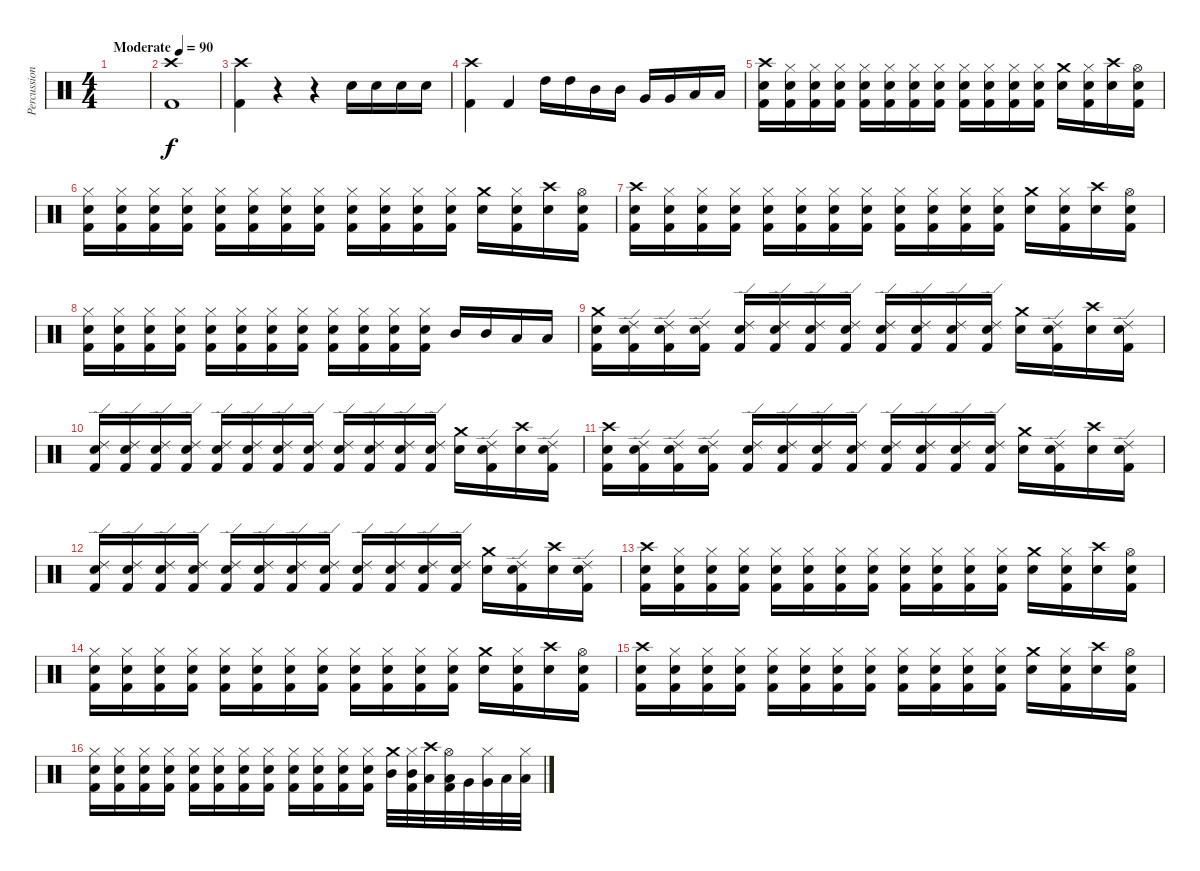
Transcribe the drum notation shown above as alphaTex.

\track ("Percussion" "Percussion") {instrument percussion}
\staff {score}
\articulation defaults
\ts (4 4)
\tempo (90 "Moderate")
\clef neutral
\ks c
|
("Crash high (hit)" "Kick (hit) 2").1 |
("Crash high (hit)" "Kick (hit) 2").4 r.4 r.4 "Snare (hit) 2".16 "Snare (hit) 2".16 "Snare (hit) 2".16 "Snare (hit) 2".16 |
("Crash high (hit)" "Kick (hit) 2").4 "Kick (hit) 2".4 "High Tom (hit)".16 "High Tom (hit)".16 "Mid Tom (hit)".16 "Mid Tom (hit)".16 "Very Low Tom (hit)".16 "Very Low Tom (hit)".16 "Low Floor Tom (hit)".16 "Low Floor Tom (hit)".16 |
("Crash high (hit)" "Snare (hit) 2" "Kick (hit) 2").16 ("Hi-Hat (closed)" "Snare (hit) 2" "Kick (hit) 2").16 ("Hi-Hat (closed)" "Snare (hit) 2" "Kick (hit) 2").16 ("Hi-Hat (closed)" "Snare (hit) 2" "Kick (hit) 2").16 ("Hi-Hat (closed)" "Snare (hit) 2" "Kick (hit) 2").16 ("Hi-Hat (closed)" "Snare (hit) 2" "Kick (hit) 2").16 ("Hi-Hat (closed)" "Snare (hit) 2" "Kick (hit) 2").16 ("Hi-Hat (closed)" "Snare (hit) 2" "Kick (hit) 2").16 ("Hi-Hat (closed)" "Snare (hit) 2" "Kick (hit) 2").16 ("Hi-Hat (closed)" "Snare (hit) 2" "Kick (hit) 2").16 ("Hi-Hat (closed)" "Snare (hit) 2" "Kick (hit) 2").16 ("Hi-Hat (closed)" "Snare (hit) 2" "Kick (hit) 2").16 ("Crash medium (hit)" "Snare (hit) 2").16 ("Hi-Hat (closed)" "Snare (hit) 2" "Kick (hit) 2").16 ("Crash high (hit)" "Snare (hit) 2").16 ("Hi-Hat (open)" "Snare (hit) 2" "Kick (hit) 2").16 |
("Hi-Hat (closed)" "Snare (hit) 2" "Kick (hit) 2").16 ("Hi-Hat (closed)" "Snare (hit) 2" "Kick (hit) 2").16 ("Hi-Hat (closed)" "Snare (hit) 2" "Kick (hit) 2").16 ("Hi-Hat (closed)" "Snare (hit) 2" "Kick (hit) 2").16 ("Hi-Hat (closed)" "Snare (hit) 2" "Kick (hit) 2").16 ("Hi-Hat (closed)" "Snare (hit) 2" "Kick (hit) 2").16 ("Hi-Hat (closed)" "Snare (hit) 2" "Kick (hit) 2").16 ("Hi-Hat (closed)" "Snare (hit) 2" "Kick (hit) 2").16 ("Hi-Hat (closed)" "Snare (hit) 2" "Kick (hit) 2").16 ("Hi-Hat (closed)" "Snare (hit) 2" "Kick (hit) 2").16 ("Hi-Hat (closed)" "Snare (hit) 2" "Kick (hit) 2").16 ("Hi-Hat (closed)" "Snare (hit) 2" "Kick (hit) 2").16 ("Crash medium (hit)" "Snare (hit) 2").16 ("Hi-Hat (closed)" "Snare (hit) 2" "Kick (hit) 2").16 ("Crash high (hit)" "Snare (hit) 2").16 ("Hi-Hat (open)" "Snare (hit) 2" "Kick (hit) 2").16 |
("Crash high (hit)" "Snare (hit) 2" "Kick (hit) 2").16 ("Hi-Hat (closed)" "Snare (hit) 2" "Kick (hit) 2").16 ("Hi-Hat (closed)" "Snare (hit) 2" "Kick (hit) 2").16 ("Hi-Hat (closed)" "Snare (hit) 2" "Kick (hit) 2").16 ("Hi-Hat (closed)" "Snare (hit) 2" "Kick (hit) 2").16 ("Hi-Hat (closed)" "Snare (hit) 2" "Kick (hit) 2").16 ("Hi-Hat (closed)" "Snare (hit) 2" "Kick (hit) 2").16 ("Hi-Hat (closed)" "Snare (hit) 2" "Kick (hit) 2").16 ("Hi-Hat (closed)" "Snare (hit) 2" "Kick (hit) 2").16 ("Hi-Hat (closed)" "Snare (hit) 2" "Kick (hit) 2").16 ("Hi-Hat (closed)" "Snare (hit) 2" "Kick (hit) 2").16 ("Hi-Hat (closed)" "Snare (hit) 2" "Kick (hit) 2").16 ("Crash medium (hit)" "Snare (hit) 2").16 ("Hi-Hat (closed)" "Snare (hit) 2" "Kick (hit) 2").16 ("Crash high (hit)" "Snare (hit) 2").16 ("Hi-Hat (open)" "Snare (hit) 2" "Kick (hit) 2").16 |
("Hi-Hat (closed)" "Snare (hit) 2" "Kick (hit) 2").16 ("Hi-Hat (closed)" "Snare (hit) 2" "Kick (hit) 2").16 ("Hi-Hat (closed)" "Snare (hit) 2" "Kick (hit) 2").16 ("Hi-Hat (closed)" "Snare (hit) 2" "Kick (hit) 2").16 ("Hi-Hat (closed)" "Snare (hit) 2" "Kick (hit) 2").16 ("Hi-Hat (closed)" "Snare (hit) 2" "Kick (hit) 2").16 ("Hi-Hat (closed)" "Snare (hit) 2" "Kick (hit) 2").16 ("Hi-Hat (closed)" "Snare (hit) 2" "Kick (hit) 2").16 ("Hi-Hat (closed)" "Snare (hit) 2" "Kick (hit) 2").16 ("Hi-Hat (closed)" "Snare (hit) 2" "Kick (hit) 2").16 ("Hi-Hat (closed)" "Snare (hit) 2" "Kick (hit) 2").16 ("Hi-Hat (closed)" "Snare (hit) 2" "Kick (hit) 2").16 "Mid Tom (hit)".16 "Mid Tom (hit)".16 "Low Tom (hit)".16 "Low Tom (hit)".16 |
("Crash medium (hit)" "Snare (hit) 2" "Kick (hit) 2").16 ("Ride (edge) 2" "Snare (hit) 2" "Kick (hit) 2").16 ("Ride (edge) 2" "Snare (hit) 2" "Kick (hit) 2").16 ("Ride (edge) 2" "Snare (hit) 2" "Kick (hit) 2").16 ("Ride (edge) 2" "Snare (hit) 2" "Kick (hit) 2").16 ("Ride (edge) 2" "Snare (hit) 2" "Kick (hit) 2").16 ("Ride (edge) 2" "Snare (hit) 2" "Kick (hit) 2").16 ("Ride (edge) 2" "Snare (hit) 2" "Kick (hit) 2").16 ("Ride (edge) 2" "Snare (hit) 2" "Kick (hit) 2").16 ("Ride (edge) 2" "Snare (hit) 2" "Kick (hit) 2").16 ("Ride (edge) 2" "Snare (hit) 2" "Kick (hit) 2").16 ("Ride (edge) 2" "Snare (hit) 2" "Kick (hit) 2").16 ("Crash medium (hit)" "Snare (hit) 2").16 ("Ride (edge) 2" "Snare (hit) 2" "Kick (hit) 2").16 ("Crash high (hit)" "Snare (hit) 2").16 ("Ride (edge) 2" "Snare (hit) 2" "Kick (hit) 2").16 |
("Ride (edge) 2" "Snare (hit) 2" "Kick (hit) 2").16 ("Ride (edge) 2" "Snare (hit) 2" "Kick (hit) 2").16 ("Ride (edge) 2" "Snare (hit) 2" "Kick (hit) 2").16 ("Ride (edge) 2" "Snare (hit) 2" "Kick (hit) 2").16 ("Ride (edge) 2" "Snare (hit) 2" "Kick (hit) 2").16 ("Ride (edge) 2" "Snare (hit) 2" "Kick (hit) 2").16 ("Ride (edge) 2" "Snare (hit) 2" "Kick (hit) 2").16 ("Ride (edge) 2" "Snare (hit) 2" "Kick (hit) 2").16 ("Ride (edge) 2" "Snare (hit) 2" "Kick (hit) 2").16 ("Ride (edge) 2" "Snare (hit) 2" "Kick (hit) 2").16 ("Ride (edge) 2" "Snare (hit) 2" "Kick (hit) 2").16 ("Ride (edge) 2" "Snare (hit) 2" "Kick (hit) 2").16 ("Crash medium (hit)" "Snare (hit) 2").16 ("Ride (edge) 2" "Snare (hit) 2" "Kick (hit) 2").16 ("Crash high (hit)" "Snare (hit) 2").16 ("Ride (edge) 2" "Snare (hit) 2" "Kick (hit) 2").16 |
("Crash high (hit)" "Snare (hit) 2" "Kick (hit) 2").16 ("Ride (edge) 2" "Snare (hit) 2" "Kick (hit) 2").16 ("Ride (edge) 2" "Snare (hit) 2" "Kick (hit) 2").16 ("Ride (edge) 2" "Snare (hit) 2" "Kick (hit) 2").16 ("Ride (edge) 2" "Snare (hit) 2" "Kick (hit) 2").16 ("Ride (edge) 2" "Snare (hit) 2" "Kick (hit) 2").16 ("Ride (edge) 2" "Snare (hit) 2" "Kick (hit) 2").16 ("Ride (edge) 2" "Snare (hit) 2" "Kick (hit) 2").16 ("Ride (edge) 2" "Snare (hit) 2" "Kick (hit) 2").16 ("Ride (edge) 2" "Snare (hit) 2" "Kick (hit) 2").16 ("Ride (edge) 2" "Snare (hit) 2" "Kick (hit) 2").16 ("Ride (edge) 2" "Snare (hit) 2" "Kick (hit) 2").16 ("Crash medium (hit)" "Snare (hit) 2").16 ("Ride (edge) 2" "Snare (hit) 2" "Kick (hit) 2").16 ("Crash high (hit)" "Snare (hit) 2").16 ("Ride (edge) 2" "Snare (hit) 2" "Kick (hit) 2").16 |
("Ride (edge) 2" "Snare (hit) 2" "Kick (hit) 2").16 ("Ride (edge) 2" "Snare (hit) 2" "Kick (hit) 2").16 ("Ride (edge) 2" "Snare (hit) 2" "Kick (hit) 2").16 ("Ride (edge) 2" "Snare (hit) 2" "Kick (hit) 2").16 ("Ride (edge) 2" "Snare (hit) 2" "Kick (hit) 2").16 ("Ride (edge) 2" "Snare (hit) 2" "Kick (hit) 2").16 ("Ride (edge) 2" "Snare (hit) 2" "Kick (hit) 2").16 ("Ride (edge) 2" "Snare (hit) 2" "Kick (hit) 2").16 ("Ride (edge) 2" "Snare (hit) 2" "Kick (hit) 2").16 ("Ride (edge) 2" "Snare (hit) 2" "Kick (hit) 2").16 ("Ride (edge) 2" "Snare (hit) 2" "Kick (hit) 2").16 ("Ride (edge) 2" "Snare (hit) 2" "Kick (hit) 2").16 ("Crash medium (hit)" "Snare (hit) 2").16 ("Ride (edge) 2" "Snare (hit) 2" "Kick (hit) 2").16 ("Crash high (hit)" "Snare (hit) 2").16 ("Ride (edge) 2" "Snare (hit) 2" "Kick (hit) 2").16 |
("Crash high (hit)" "Snare (hit) 2" "Kick (hit) 2").16 ("Hi-Hat (closed)" "Snare (hit) 2" "Kick (hit) 2").16 ("Hi-Hat (closed)" "Snare (hit) 2" "Kick (hit) 2").16 ("Hi-Hat (closed)" "Snare (hit) 2" "Kick (hit) 2").16 ("Hi-Hat (closed)" "Snare (hit) 2" "Kick (hit) 2").16 ("Hi-Hat (closed)" "Snare (hit) 2" "Kick (hit) 2").16 ("Hi-Hat (closed)" "Snare (hit) 2" "Kick (hit) 2").16 ("Hi-Hat (closed)" "Snare (hit) 2" "Kick (hit) 2").16 ("Hi-Hat (closed)" "Snare (hit) 2" "Kick (hit) 2").16 ("Hi-Hat (closed)" "Snare (hit) 2" "Kick (hit) 2").16 ("Hi-Hat (closed)" "Snare (hit) 2" "Kick (hit) 2").16 ("Hi-Hat (closed)" "Snare (hit) 2" "Kick (hit) 2").16 ("Crash medium (hit)" "Snare (hit) 2").16 ("Hi-Hat (closed)" "Snare (hit) 2" "Kick (hit) 2").16 ("Crash high (hit)" "Snare (hit) 2").16 ("Hi-Hat (open)" "Snare (hit) 2" "Kick (hit) 2").16 |
("Hi-Hat (closed)" "Snare (hit) 2" "Kick (hit) 2").16 ("Hi-Hat (closed)" "Snare (hit) 2" "Kick (hit) 2").16 ("Hi-Hat (closed)" "Snare (hit) 2" "Kick (hit) 2").16 ("Hi-Hat (closed)" "Snare (hit) 2" "Kick (hit) 2").16 ("Hi-Hat (closed)" "Snare (hit) 2" "Kick (hit) 2").16 ("Hi-Hat (closed)" "Snare (hit) 2" "Kick (hit) 2").16 ("Hi-Hat (closed)" "Snare (hit) 2" "Kick (hit) 2").16 ("Hi-Hat (closed)" "Snare (hit) 2" "Kick (hit) 2").16 ("Hi-Hat (closed)" "Snare (hit) 2" "Kick (hit) 2").16 ("Hi-Hat (closed)" "Snare (hit) 2" "Kick (hit) 2").16 ("Hi-Hat (closed)" "Snare (hit) 2" "Kick (hit) 2").16 ("Hi-Hat (closed)" "Snare (hit) 2" "Kick (hit) 2").16 ("Crash medium (hit)" "Snare (hit) 2").16 ("Hi-Hat (closed)" "Snare (hit) 2" "Kick (hit) 2").16 ("Crash high (hit)" "Snare (hit) 2").16 ("Hi-Hat (open)" "Snare (hit) 2" "Kick (hit) 2").16 |
("Crash high (hit)" "Snare (hit) 2" "Kick (hit) 2").16 ("Hi-Hat (closed)" "Snare (hit) 2" "Kick (hit) 2").16 ("Hi-Hat (closed)" "Snare (hit) 2" "Kick (hit) 2").16 ("Hi-Hat (closed)" "Snare (hit) 2" "Kick (hit) 2").16 ("Hi-Hat (closed)" "Snare (hit) 2" "Kick (hit) 2").16 ("Hi-Hat (closed)" "Snare (hit) 2" "Kick (hit) 2").16 ("Hi-Hat (closed)" "Snare (hit) 2" "Kick (hit) 2").16 ("Hi-Hat (closed)" "Snare (hit) 2" "Kick (hit) 2").16 ("Hi-Hat (closed)" "Snare (hit) 2" "Kick (hit) 2").16 ("Hi-Hat (closed)" "Snare (hit) 2" "Kick (hit) 2").16 ("Hi-Hat (closed)" "Snare (hit) 2" "Kick (hit) 2").16 ("Hi-Hat (closed)" "Snare (hit) 2" "Kick (hit) 2").16 ("Crash medium (hit)" "Snare (hit) 2").16 ("Hi-Hat (closed)" "Snare (hit) 2" "Kick (hit) 2").16 ("Crash high (hit)" "Snare (hit) 2").16 ("Hi-Hat (open)" "Snare (hit) 2" "Kick (hit) 2").16 |
("Hi-Hat (closed)" "Snare (hit) 2" "Kick (hit) 2").16 ("Hi-Hat (closed)" "Snare (hit) 2" "Kick (hit) 2").16 ("Hi-Hat (closed)" "Snare (hit) 2" "Kick (hit) 2").16 ("Hi-Hat (closed)" "Snare (hit) 2" "Kick (hit) 2").16 ("Hi-Hat (closed)" "Snare (hit) 2" "Kick (hit) 2").16 ("Hi-Hat (closed)" "Snare (hit) 2" "Kick (hit) 2").16 ("Hi-Hat (closed)" "Snare (hit) 2" "Kick (hit) 2").16 ("Hi-Hat (closed)" "Snare (hit) 2" "Kick (hit) 2").16 ("Hi-Hat (closed)" "Snare (hit) 2" "Kick (hit) 2").16 ("Hi-Hat (closed)" "Snare (hit) 2" "Kick (hit) 2").16 ("Hi-Hat (closed)" "Snare (hit) 2" "Kick (hit) 2").16 ("Hi-Hat (closed)" "Snare (hit) 2" "Kick (hit) 2").16 ("Crash medium (hit)" "Mid Tom (hit)").32 ("Hi-Hat (closed)" "Mid Tom (hit)" "Kick (hit) 2").32 ("Crash high (hit)" "Low Tom (hit)").32 ("Hi-Hat (open)" "Low Tom (hit)" "Kick (hit) 2").32 "Very Low Tom (hit)".32 ("Hi-Hat (closed)" "Very Low Tom (hit)").32 "Low Floor Tom (hit)".32 ("Hi-Hat (closed)" "Low Floor Tom (hit)").32
